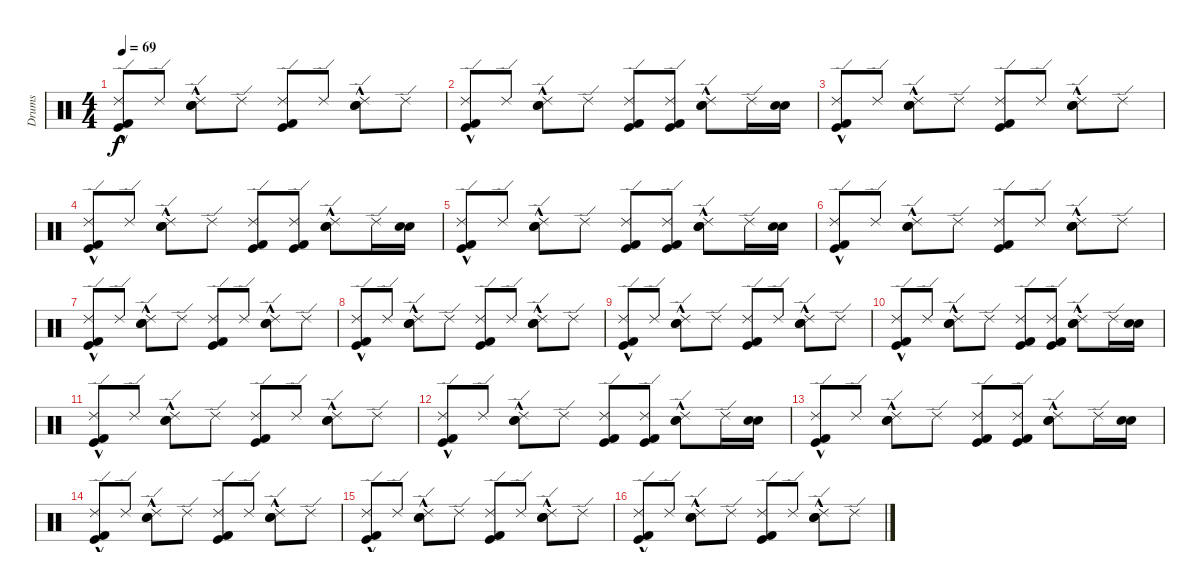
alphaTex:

\track ("Drums" "Drums") {instrument percussion}
\staff {score}
\articulation defaults
\ts (4 4)
\tempo 69
\clef neutral
\ks c
("Ride (edge) 2"{hac} "Kick (hit) 2" "Kick (hit)").8{dy f} "Ride (edge) 2".8 ("Ride (edge) 2"{hac} "Snare (hit) 2" "Electric Snare (hit)").8 "Ride (edge) 2".8 ("Ride (edge) 2" "Kick (hit) 2" "Kick (hit)").8 "Ride (edge) 2".8 ("Ride (edge) 2"{hac} "Snare (hit) 2" "Electric Snare (hit)").8 "Ride (edge) 2".8 |
("Ride (edge) 2"{hac} "Kick (hit) 2" "Kick (hit)").8 "Ride (edge) 2".8 ("Ride (edge) 2"{hac} "Snare (hit) 2" "Electric Snare (hit)").8 "Ride (edge) 2".8 ("Ride (edge) 2" "Kick (hit) 2" "Kick (hit)").8 ("Ride (edge) 2" "Kick (hit) 2" "Kick (hit)").8 ("Ride (edge) 2"{hac} "Snare (hit) 2" "Electric Snare (hit)").8 "Ride (edge) 2".16 ("Snare (hit) 2" "Electric Snare (hit)").16 |
("Ride (edge) 2"{hac} "Kick (hit) 2" "Kick (hit)").8 "Ride (edge) 2".8 ("Ride (edge) 2"{hac} "Snare (hit) 2" "Electric Snare (hit)").8 "Ride (edge) 2".8 ("Ride (edge) 2" "Kick (hit) 2" "Kick (hit)").8 "Ride (edge) 2".8 ("Ride (edge) 2"{hac} "Snare (hit) 2" "Electric Snare (hit)").8 "Ride (edge) 2".8 |
("Ride (edge) 2"{hac} "Kick (hit) 2" "Kick (hit)").8 "Ride (edge) 2".8 ("Ride (edge) 2"{hac} "Snare (hit) 2" "Electric Snare (hit)").8 "Ride (edge) 2".8 ("Ride (edge) 2" "Kick (hit) 2" "Kick (hit)").8 ("Ride (edge) 2" "Kick (hit) 2" "Kick (hit)").8 ("Ride (edge) 2"{hac} "Snare (hit) 2" "Electric Snare (hit)").8 "Ride (edge) 2".16 ("Snare (hit) 2" "Electric Snare (hit)").16 |
("Ride (edge) 2"{hac} "Kick (hit) 2" "Kick (hit)").8 "Ride (edge) 2".8 ("Ride (edge) 2"{hac} "Snare (hit) 2" "Electric Snare (hit)").8 "Ride (edge) 2".8 ("Ride (edge) 2" "Kick (hit) 2" "Kick (hit)").8 ("Ride (edge) 2" "Kick (hit) 2" "Kick (hit)").8 ("Ride (edge) 2"{hac} "Snare (hit) 2" "Electric Snare (hit)").8 "Ride (edge) 2".16 ("Snare (hit) 2" "Electric Snare (hit)").16 |
("Ride (edge) 2"{hac} "Kick (hit) 2" "Kick (hit)").8 "Ride (edge) 2".8 ("Ride (edge) 2"{hac} "Snare (hit) 2" "Electric Snare (hit)").8 "Ride (edge) 2".8 ("Ride (edge) 2" "Kick (hit) 2" "Kick (hit)").8 "Ride (edge) 2".8 ("Ride (edge) 2"{hac} "Snare (hit) 2" "Electric Snare (hit)").8 "Ride (edge) 2".8 |
("Ride (edge) 2"{hac} "Kick (hit) 2" "Kick (hit)").8 "Ride (edge) 2".8 ("Ride (edge) 2"{hac} "Snare (hit) 2" "Electric Snare (hit)").8 "Ride (edge) 2".8 ("Ride (edge) 2" "Kick (hit) 2" "Kick (hit)").8 "Ride (edge) 2".8 ("Ride (edge) 2"{hac} "Snare (hit) 2" "Electric Snare (hit)").8 "Ride (edge) 2".8 |
("Ride (edge) 2"{hac} "Kick (hit) 2" "Kick (hit)").8 "Ride (edge) 2".8 ("Ride (edge) 2"{hac} "Snare (hit) 2" "Electric Snare (hit)").8 "Ride (edge) 2".8 ("Ride (edge) 2" "Kick (hit) 2" "Kick (hit)").8 "Ride (edge) 2".8 ("Ride (edge) 2"{hac} "Snare (hit) 2" "Electric Snare (hit)").8 "Ride (edge) 2".8 |
("Ride (edge) 2"{hac} "Kick (hit) 2" "Kick (hit)").8 "Ride (edge) 2".8 ("Ride (edge) 2"{hac} "Snare (hit) 2" "Electric Snare (hit)").8 "Ride (edge) 2".8 ("Ride (edge) 2" "Kick (hit) 2" "Kick (hit)").8 "Ride (edge) 2".8 ("Ride (edge) 2"{hac} "Snare (hit) 2" "Electric Snare (hit)").8 "Ride (edge) 2".8 |
("Ride (edge) 2"{hac} "Kick (hit) 2" "Kick (hit)").8 "Ride (edge) 2".8 ("Ride (edge) 2"{hac} "Snare (hit) 2" "Electric Snare (hit)").8 "Ride (edge) 2".8 ("Ride (edge) 2" "Kick (hit) 2" "Kick (hit)").8 ("Ride (edge) 2" "Kick (hit) 2" "Kick (hit)").8 ("Ride (edge) 2"{hac} "Snare (hit) 2" "Electric Snare (hit)").8 "Ride (edge) 2".16 ("Snare (hit) 2" "Electric Snare (hit)").16 |
("Ride (edge) 2"{hac} "Kick (hit) 2" "Kick (hit)").8 "Ride (edge) 2".8 ("Ride (edge) 2"{hac} "Snare (hit) 2" "Electric Snare (hit)").8 "Ride (edge) 2".8 ("Ride (edge) 2" "Kick (hit) 2" "Kick (hit)").8 "Ride (edge) 2".8 ("Ride (edge) 2"{hac} "Snare (hit) 2" "Electric Snare (hit)").8 "Ride (edge) 2".8 |
("Ride (edge) 2"{hac} "Kick (hit) 2" "Kick (hit)").8 "Ride (edge) 2".8 ("Ride (edge) 2"{hac} "Snare (hit) 2" "Electric Snare (hit)").8 "Ride (edge) 2".8 ("Ride (edge) 2" "Kick (hit) 2" "Kick (hit)").8 ("Ride (edge) 2" "Kick (hit) 2" "Kick (hit)").8 ("Ride (edge) 2"{hac} "Snare (hit) 2" "Electric Snare (hit)").8 "Ride (edge) 2".16 ("Snare (hit) 2" "Electric Snare (hit)").16 |
("Ride (edge) 2"{hac} "Kick (hit) 2" "Kick (hit)").8 "Ride (edge) 2".8 ("Ride (edge) 2"{hac} "Snare (hit) 2" "Electric Snare (hit)").8 "Ride (edge) 2".8 ("Ride (edge) 2" "Kick (hit) 2" "Kick (hit)").8 ("Ride (edge) 2" "Kick (hit) 2" "Kick (hit)").8 ("Ride (edge) 2"{hac} "Snare (hit) 2" "Electric Snare (hit)").8 "Ride (edge) 2".16 ("Snare (hit) 2" "Electric Snare (hit)").16 |
("Ride (edge) 2"{hac} "Kick (hit) 2" "Kick (hit)").8 "Ride (edge) 2".8 ("Ride (edge) 2"{hac} "Snare (hit) 2" "Electric Snare (hit)").8 "Ride (edge) 2".8 ("Ride (edge) 2" "Kick (hit) 2" "Kick (hit)").8 "Ride (edge) 2".8 ("Ride (edge) 2"{hac} "Snare (hit) 2" "Electric Snare (hit)").8 "Ride (edge) 2".8 |
("Ride (edge) 2"{hac} "Kick (hit) 2" "Kick (hit)").8 "Ride (edge) 2".8 ("Ride (edge) 2"{hac} "Snare (hit) 2" "Electric Snare (hit)").8 "Ride (edge) 2".8 ("Ride (edge) 2" "Kick (hit) 2" "Kick (hit)").8 "Ride (edge) 2".8 ("Ride (edge) 2"{hac} "Snare (hit) 2" "Electric Snare (hit)").8 "Ride (edge) 2".8 |
("Ride (edge) 2"{hac} "Kick (hit) 2" "Kick (hit)").8 "Ride (edge) 2".8 ("Ride (edge) 2"{hac} "Snare (hit) 2" "Electric Snare (hit)").8 "Ride (edge) 2".8 ("Ride (edge) 2" "Kick (hit) 2" "Kick (hit)").8 "Ride (edge) 2".8 ("Ride (edge) 2"{hac} "Snare (hit) 2" "Electric Snare (hit)").8 "Ride (edge) 2".8
